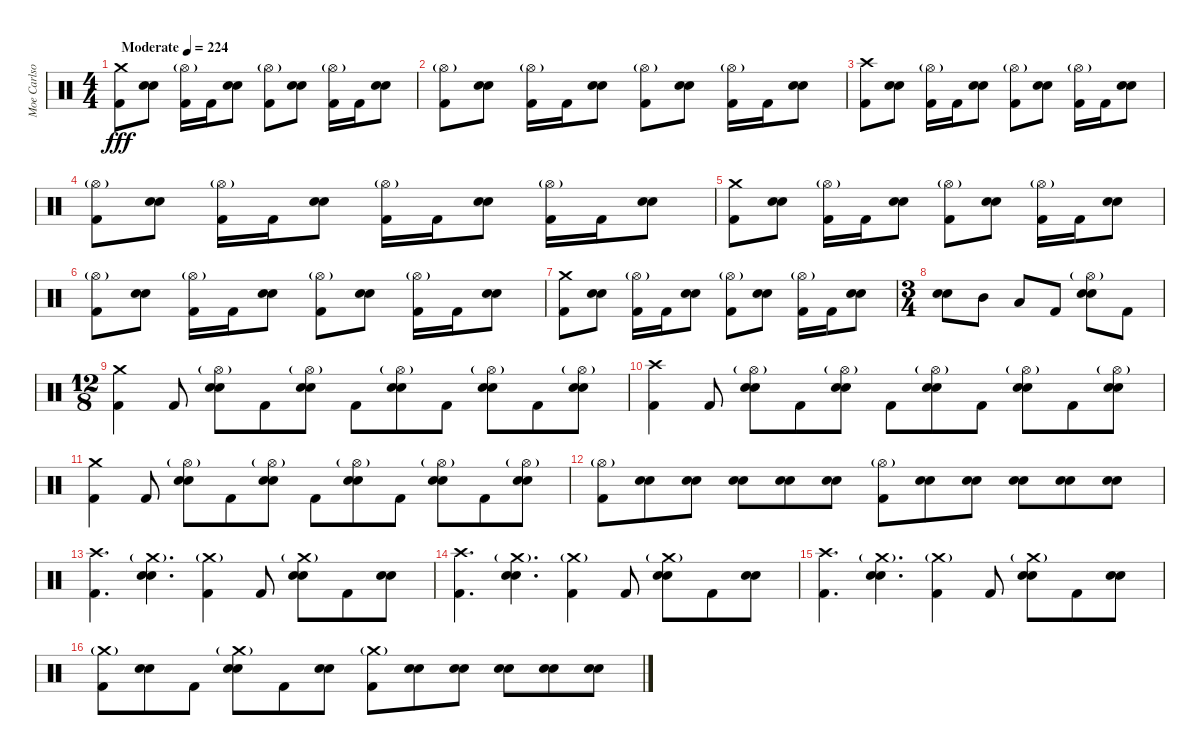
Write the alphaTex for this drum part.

\track ("Moe Carlson" "Moe Carlso") {instrument percussion}
\staff {score}
\articulation defaults
\ts (4 4)
\tempo (224 "Moderate")
\clef neutral
\ks c
("Crash medium (hit)" "Kick (hit) 2").8{dy fff} ("Snare (hit) 2" "Electric Snare (hit)").8 ("Hi-Hat (open)"{g} "Kick (hit) 2").16 "Kick (hit) 2".16 ("Snare (hit) 2" "Electric Snare (hit)").8 ("Hi-Hat (open)"{g} "Kick (hit) 2").8 ("Snare (hit) 2" "Electric Snare (hit)").8 ("Hi-Hat (open)"{g} "Kick (hit) 2").16 "Kick (hit) 2".16 ("Snare (hit) 2" "Electric Snare (hit)").8 |
("Hi-Hat (open)"{g} "Kick (hit) 2").8 ("Snare (hit) 2" "Electric Snare (hit)").8 ("Hi-Hat (open)"{g} "Kick (hit) 2").16 "Kick (hit) 2".16 ("Snare (hit) 2" "Electric Snare (hit)").8 ("Hi-Hat (open)"{g} "Kick (hit) 2").8 ("Snare (hit) 2" "Electric Snare (hit)").8 ("Hi-Hat (open)"{g} "Kick (hit) 2").16 "Kick (hit) 2".16 ("Snare (hit) 2" "Electric Snare (hit)").8 |
("Crash high (hit)" "Kick (hit) 2").8 ("Snare (hit) 2" "Electric Snare (hit)").8 ("Hi-Hat (open)"{g} "Kick (hit) 2").16 "Kick (hit) 2".16 ("Snare (hit) 2" "Electric Snare (hit)").8 ("Hi-Hat (open)"{g} "Kick (hit) 2").8 ("Snare (hit) 2" "Electric Snare (hit)").8 ("Hi-Hat (open)"{g} "Kick (hit) 2").16 "Kick (hit) 2".16 ("Snare (hit) 2" "Electric Snare (hit)").8 |
("Hi-Hat (open)"{g} "Kick (hit) 2").8 ("Snare (hit) 2" "Electric Snare (hit)").8 ("Hi-Hat (open)"{g} "Kick (hit) 2").16 "Kick (hit) 2".16 ("Snare (hit) 2" "Electric Snare (hit)").8 ("Hi-Hat (open)"{g} "Kick (hit) 2").16 "Kick (hit) 2".16 ("Snare (hit) 2" "Electric Snare (hit)").8 ("Hi-Hat (open)"{g} "Kick (hit) 2").16 "Kick (hit) 2".16 ("Snare (hit) 2" "Electric Snare (hit)").8 |
("Crash medium (hit)" "Kick (hit) 2").8 ("Snare (hit) 2" "Electric Snare (hit)").8 ("Hi-Hat (open)"{g} "Kick (hit) 2").16 "Kick (hit) 2".16 ("Snare (hit) 2" "Electric Snare (hit)").8 ("Hi-Hat (open)"{g} "Kick (hit) 2").8 ("Snare (hit) 2" "Electric Snare (hit)").8 ("Hi-Hat (open)"{g} "Kick (hit) 2").16 "Kick (hit) 2".16 ("Snare (hit) 2" "Electric Snare (hit)").8 |
("Hi-Hat (open)"{g} "Kick (hit) 2").8 ("Snare (hit) 2" "Electric Snare (hit)").8 ("Hi-Hat (open)"{g} "Kick (hit) 2").16 "Kick (hit) 2".16 ("Snare (hit) 2" "Electric Snare (hit)").8 ("Hi-Hat (open)"{g} "Kick (hit) 2").8 ("Snare (hit) 2" "Electric Snare (hit)").8 ("Hi-Hat (open)"{g} "Kick (hit) 2").16 "Kick (hit) 2".16 ("Snare (hit) 2" "Electric Snare (hit)").8 |
("Crash medium (hit)" "Kick (hit) 2").8 ("Snare (hit) 2" "Electric Snare (hit)").8 ("Hi-Hat (open)"{g} "Kick (hit) 2").16 "Kick (hit) 2".16 ("Snare (hit) 2" "Electric Snare (hit)").8 ("Hi-Hat (open)"{g} "Kick (hit) 2").8 ("Snare (hit) 2" "Electric Snare (hit)").8 ("Hi-Hat (open)"{g} "Kick (hit) 2").16 "Kick (hit) 2".16 ("Snare (hit) 2" "Electric Snare (hit)").8 |
\ts (3 4)
("Snare (hit) 2" "Electric Snare (hit)").8 "Mid Tom (hit)".8 "Low Tom (hit)".8 "Kick (hit) 2".8 ("Hi-Hat (open)"{g} "Snare (hit) 2" "Electric Snare (hit)").8 "Kick (hit) 2".8 |
\ts (12 8)
("Crash medium (hit)" "Kick (hit) 2").4 "Kick (hit) 2".8 ("Hi-Hat (open)"{g} "Snare (hit) 2" "Electric Snare (hit)").8 "Kick (hit) 2".8 ("Hi-Hat (open)"{g} "Snare (hit) 2" "Electric Snare (hit)").8 "Kick (hit) 2".8 ("Hi-Hat (open)"{g} "Snare (hit) 2" "Electric Snare (hit)").8 "Kick (hit) 2".8 ("Hi-Hat (open)"{g} "Snare (hit) 2" "Electric Snare (hit)").8 "Kick (hit) 2".8 ("Hi-Hat (open)"{g} "Snare (hit) 2" "Electric Snare (hit)").8 |
("Crash high (hit)" "Kick (hit) 2").4 "Kick (hit) 2".8 ("Hi-Hat (open)"{g} "Snare (hit) 2" "Electric Snare (hit)").8 "Kick (hit) 2".8 ("Hi-Hat (open)"{g} "Snare (hit) 2" "Electric Snare (hit)").8 "Kick (hit) 2".8 ("Hi-Hat (open)"{g} "Snare (hit) 2" "Electric Snare (hit)").8 "Kick (hit) 2".8 ("Hi-Hat (open)"{g} "Snare (hit) 2" "Electric Snare (hit)").8 "Kick (hit) 2".8 ("Hi-Hat (open)"{g} "Snare (hit) 2" "Electric Snare (hit)").8 |
("Crash medium (hit)" "Kick (hit) 2").4 "Kick (hit) 2".8 ("Hi-Hat (open)"{g} "Snare (hit) 2" "Electric Snare (hit)").8 "Kick (hit) 2".8 ("Hi-Hat (open)"{g} "Snare (hit) 2" "Electric Snare (hit)").8 "Kick (hit) 2".8 ("Hi-Hat (open)"{g} "Snare (hit) 2" "Electric Snare (hit)").8 "Kick (hit) 2".8 ("Hi-Hat (open)"{g} "Snare (hit) 2" "Electric Snare (hit)").8 "Kick (hit) 2".8 ("Hi-Hat (open)"{g} "Snare (hit) 2" "Electric Snare (hit)").8 |
("Hi-Hat (open)"{g} "Kick (hit) 2").8 ("Snare (hit) 2" "Electric Snare (hit)").8 ("Snare (hit) 2" "Electric Snare (hit)").8 ("Snare (hit) 2" "Electric Snare (hit)").8 ("Snare (hit) 2" "Electric Snare (hit)").8 ("Snare (hit) 2" "Electric Snare (hit)").8 ("Hi-Hat (open)"{g} "Kick (hit) 2").8 ("Snare (hit) 2" "Electric Snare (hit)").8 ("Snare (hit) 2" "Electric Snare (hit)").8 ("Snare (hit) 2" "Electric Snare (hit)").8 ("Snare (hit) 2" "Electric Snare (hit)").8 ("Snare (hit) 2" "Electric Snare (hit)").8 |
("Crash high (hit)" "Kick (hit) 2").4{d} ("Crash medium (hit)"{g} "Snare (hit) 2" "Electric Snare (hit)").4{d} ("Crash medium (hit)"{g} "Kick (hit) 2").4 "Kick (hit) 2".8 ("Crash medium (hit)"{g} "Snare (hit) 2" "Electric Snare (hit)").8 "Kick (hit) 2".8 ("Snare (hit) 2" "Electric Snare (hit)").8 |
("Crash high (hit)" "Kick (hit) 2").4{d} ("Crash medium (hit)"{g} "Snare (hit) 2" "Electric Snare (hit)").4{d} ("Crash medium (hit)"{g} "Kick (hit) 2").4 "Kick (hit) 2".8 ("Crash medium (hit)"{g} "Snare (hit) 2" "Electric Snare (hit)").8 "Kick (hit) 2".8 ("Snare (hit) 2" "Electric Snare (hit)").8 |
("Crash high (hit)" "Kick (hit) 2").4{d} ("Crash medium (hit)"{g} "Snare (hit) 2" "Electric Snare (hit)").4{d} ("Crash medium (hit)"{g} "Kick (hit) 2").4 "Kick (hit) 2".8 ("Crash medium (hit)"{g} "Snare (hit) 2" "Electric Snare (hit)").8 "Kick (hit) 2".8 ("Snare (hit) 2" "Electric Snare (hit)").8 |
("Crash medium (hit)"{g} "Kick (hit) 2").8 ("Snare (hit) 2" "Electric Snare (hit)").8 "Kick (hit) 2".8 ("Crash medium (hit)"{g} "Snare (hit) 2" "Electric Snare (hit)").8 "Kick (hit) 2".8 ("Snare (hit) 2" "Electric Snare (hit)").8 ("Crash medium (hit)"{g} "Kick (hit) 2").8 ("Snare (hit) 2" "Electric Snare (hit)").8 ("Snare (hit) 2" "Electric Snare (hit)").8 ("Snare (hit) 2" "Electric Snare (hit)").8 ("Snare (hit) 2" "Electric Snare (hit)").8 ("Snare (hit) 2" "Electric Snare (hit)").8
